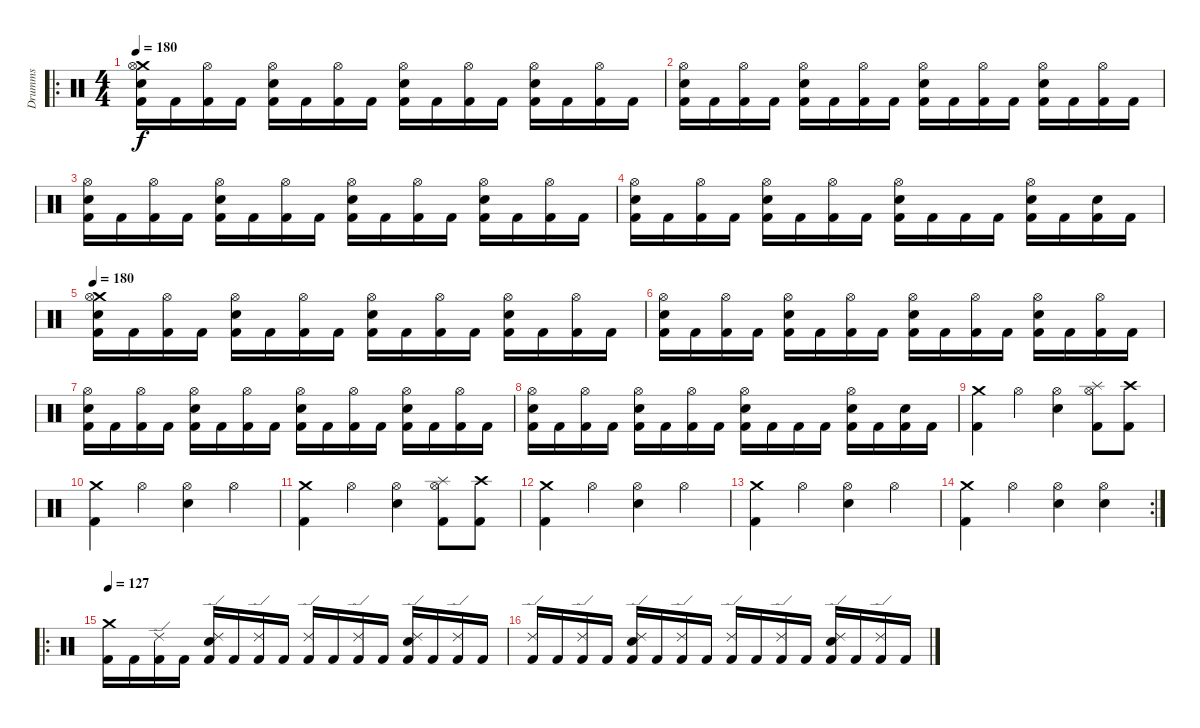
\track ("Drumms" "Drumms") {instrument percussion}
\staff {score}
\articulation defaults
\ro
\ts (4 4)
\tempo 180
\clef neutral
\ks c
("Kick (hit) 2" "Snare (hit) 2" "Crash medium (hit)" "Hi-Hat (open)").16{dy f} "Kick (hit) 2".16 ("Kick (hit) 2" "Hi-Hat (open)").16 "Kick (hit) 2".16 ("Kick (hit) 2" "Snare (hit) 2" "Hi-Hat (open)").16 "Kick (hit) 2".16 ("Kick (hit) 2" "Hi-Hat (open)").16 "Kick (hit) 2".16 ("Kick (hit) 2" "Snare (hit) 2" "Hi-Hat (open)").16 "Kick (hit) 2".16 ("Kick (hit) 2" "Hi-Hat (open)").16 "Kick (hit) 2".16 ("Kick (hit) 2" "Snare (hit) 2" "Hi-Hat (open)").16 "Kick (hit) 2".16 ("Kick (hit) 2" "Hi-Hat (open)").16 "Kick (hit) 2".16 |
("Kick (hit) 2" "Snare (hit) 2" "Hi-Hat (open)").16 "Kick (hit) 2".16 ("Kick (hit) 2" "Hi-Hat (open)").16 "Kick (hit) 2".16 ("Kick (hit) 2" "Snare (hit) 2" "Hi-Hat (open)").16 "Kick (hit) 2".16 ("Kick (hit) 2" "Hi-Hat (open)").16 "Kick (hit) 2".16 ("Kick (hit) 2" "Snare (hit) 2" "Hi-Hat (open)").16 "Kick (hit) 2".16 ("Kick (hit) 2" "Hi-Hat (open)").16 "Kick (hit) 2".16 ("Kick (hit) 2" "Snare (hit) 2" "Hi-Hat (open)").16 "Kick (hit) 2".16 ("Kick (hit) 2" "Hi-Hat (open)").16 "Kick (hit) 2".16 |
("Kick (hit) 2" "Snare (hit) 2" "Hi-Hat (open)").16 "Kick (hit) 2".16 ("Kick (hit) 2" "Hi-Hat (open)").16 "Kick (hit) 2".16 ("Kick (hit) 2" "Snare (hit) 2" "Hi-Hat (open)").16 "Kick (hit) 2".16 ("Kick (hit) 2" "Hi-Hat (open)").16 "Kick (hit) 2".16 ("Kick (hit) 2" "Snare (hit) 2" "Hi-Hat (open)").16 "Kick (hit) 2".16 ("Kick (hit) 2" "Hi-Hat (open)").16 "Kick (hit) 2".16 ("Kick (hit) 2" "Snare (hit) 2" "Hi-Hat (open)").16 "Kick (hit) 2".16 ("Kick (hit) 2" "Hi-Hat (open)").16 "Kick (hit) 2".16 |
("Kick (hit) 2" "Snare (hit) 2" "Hi-Hat (open)").16 "Kick (hit) 2".16 ("Kick (hit) 2" "Hi-Hat (open)").16 "Kick (hit) 2".16 ("Kick (hit) 2" "Snare (hit) 2" "Hi-Hat (open)").16 "Kick (hit) 2".16 ("Kick (hit) 2" "Hi-Hat (open)").16 "Kick (hit) 2".16 ("Kick (hit) 2" "Snare (hit) 2" "Hi-Hat (open)").16 "Kick (hit) 2".16 "Kick (hit) 2".16 "Kick (hit) 2".16 ("Kick (hit) 2" "Snare (hit) 2" "Hi-Hat (open)").16 "Kick (hit) 2".16 ("Kick (hit) 2" "Snare (hit) 2").16 "Kick (hit) 2".16 |
\tempo 180
("Kick (hit) 2" "Snare (hit) 2" "Crash medium (hit)" "Hi-Hat (open)").16 "Kick (hit) 2".16 ("Kick (hit) 2" "Hi-Hat (open)").16 "Kick (hit) 2".16 ("Kick (hit) 2" "Snare (hit) 2" "Hi-Hat (open)").16 "Kick (hit) 2".16 ("Kick (hit) 2" "Hi-Hat (open)").16 "Kick (hit) 2".16 ("Kick (hit) 2" "Snare (hit) 2" "Hi-Hat (open)").16 "Kick (hit) 2".16 ("Kick (hit) 2" "Hi-Hat (open)").16 "Kick (hit) 2".16 ("Kick (hit) 2" "Snare (hit) 2" "Hi-Hat (open)").16 "Kick (hit) 2".16 ("Kick (hit) 2" "Hi-Hat (open)").16 "Kick (hit) 2".16 |
("Kick (hit) 2" "Snare (hit) 2" "Hi-Hat (open)").16 "Kick (hit) 2".16 ("Kick (hit) 2" "Hi-Hat (open)").16 "Kick (hit) 2".16 ("Kick (hit) 2" "Snare (hit) 2" "Hi-Hat (open)").16 "Kick (hit) 2".16 ("Kick (hit) 2" "Hi-Hat (open)").16 "Kick (hit) 2".16 ("Kick (hit) 2" "Snare (hit) 2" "Hi-Hat (open)").16 "Kick (hit) 2".16 ("Kick (hit) 2" "Hi-Hat (open)").16 "Kick (hit) 2".16 ("Kick (hit) 2" "Snare (hit) 2" "Hi-Hat (open)").16 "Kick (hit) 2".16 ("Kick (hit) 2" "Hi-Hat (open)").16 "Kick (hit) 2".16 |
("Kick (hit) 2" "Snare (hit) 2" "Hi-Hat (open)").16 "Kick (hit) 2".16 ("Kick (hit) 2" "Hi-Hat (open)").16 "Kick (hit) 2".16 ("Kick (hit) 2" "Snare (hit) 2" "Hi-Hat (open)").16 "Kick (hit) 2".16 ("Kick (hit) 2" "Hi-Hat (open)").16 "Kick (hit) 2".16 ("Kick (hit) 2" "Snare (hit) 2" "Hi-Hat (open)").16 "Kick (hit) 2".16 ("Kick (hit) 2" "Hi-Hat (open)").16 "Kick (hit) 2".16 ("Kick (hit) 2" "Snare (hit) 2" "Hi-Hat (open)").16 "Kick (hit) 2".16 ("Kick (hit) 2" "Hi-Hat (open)").16 "Kick (hit) 2".16 |
("Kick (hit) 2" "Snare (hit) 2" "Hi-Hat (open)").16 "Kick (hit) 2".16 ("Kick (hit) 2" "Hi-Hat (open)").16 "Kick (hit) 2".16 ("Kick (hit) 2" "Snare (hit) 2" "Hi-Hat (open)").16 "Kick (hit) 2".16 ("Kick (hit) 2" "Hi-Hat (open)").16 "Kick (hit) 2".16 ("Kick (hit) 2" "Snare (hit) 2" "Hi-Hat (open)").16 "Kick (hit) 2".16 "Kick (hit) 2".16 "Kick (hit) 2".16 ("Kick (hit) 2" "Snare (hit) 2" "Hi-Hat (open)").16 "Kick (hit) 2".16 ("Kick (hit) 2" "Snare (hit) 2").16 "Kick (hit) 2".16 |
("Kick (hit) 2" "Crash medium (hit)").4 "Hi-Hat (open)".4 ("Snare (hit) 2" "Hi-Hat (open)").4 ("Kick (hit) 2" "Splash (hit)" "Hi-Hat (open)").8 ("Kick (hit) 2" "Crash high (hit)").8 |
("Kick (hit) 2" "Crash medium (hit)").4 "Hi-Hat (open)".4 ("Snare (hit) 2" "Hi-Hat (open)").4 "Hi-Hat (open)".4 |
("Kick (hit) 2" "Crash medium (hit)").4 "Hi-Hat (open)".4 ("Snare (hit) 2" "Hi-Hat (open)").4 ("Kick (hit) 2" "Splash (hit)" "Hi-Hat (open)").8 ("Kick (hit) 2" "Crash high (hit)").8 |
("Kick (hit) 2" "Crash medium (hit)").4 "Hi-Hat (open)".4 ("Snare (hit) 2" "Hi-Hat (open)").4 "Hi-Hat (open)".4 |
("Kick (hit) 2" "Crash medium (hit)").4 "Hi-Hat (open)".4 ("Snare (hit) 2" "Hi-Hat (open)").4 "Hi-Hat (open)".4 |
\rc 2
("Kick (hit) 2" "Crash medium (hit)").4 "Hi-Hat (open)".4 ("Snare (hit) 2" "Hi-Hat (open)").4 ("Snare (hit) 2" "Hi-Hat (open)").4 |
\ro
\tempo 127
("Kick (hit) 2" "Crash medium (hit)").16 "Kick (hit) 2".16 ("Kick (hit) 2" "Ride (edge) 2").16 "Kick (hit) 2".16 ("Kick (hit) 2" "Snare (hit) 2" "Ride (edge) 2").16 "Kick (hit) 2".16 ("Kick (hit) 2" "Ride (edge) 2").16 "Kick (hit) 2".16 ("Kick (hit) 2" "Ride (edge) 2").16 "Kick (hit) 2".16 ("Kick (hit) 2" "Ride (edge) 2").16 "Kick (hit) 2".16 ("Kick (hit) 2" "Snare (hit) 2" "Ride (edge) 2").16 "Kick (hit) 2".16 ("Kick (hit) 2" "Ride (edge) 2").16 "Kick (hit) 2".16 |
("Kick (hit) 2" "Ride (edge) 2").16 "Kick (hit) 2".16 ("Kick (hit) 2" "Ride (edge) 2").16 "Kick (hit) 2".16 ("Kick (hit) 2" "Snare (hit) 2" "Ride (edge) 2").16 "Kick (hit) 2".16 ("Kick (hit) 2" "Ride (edge) 2").16 "Kick (hit) 2".16 ("Kick (hit) 2" "Ride (edge) 2").16 "Kick (hit) 2".16 ("Kick (hit) 2" "Ride (edge) 2").16 "Kick (hit) 2".16 ("Kick (hit) 2" "Snare (hit) 2" "Ride (edge) 2").16 "Kick (hit) 2".16 ("Kick (hit) 2" "Ride (edge) 2").16 "Kick (hit) 2".16
